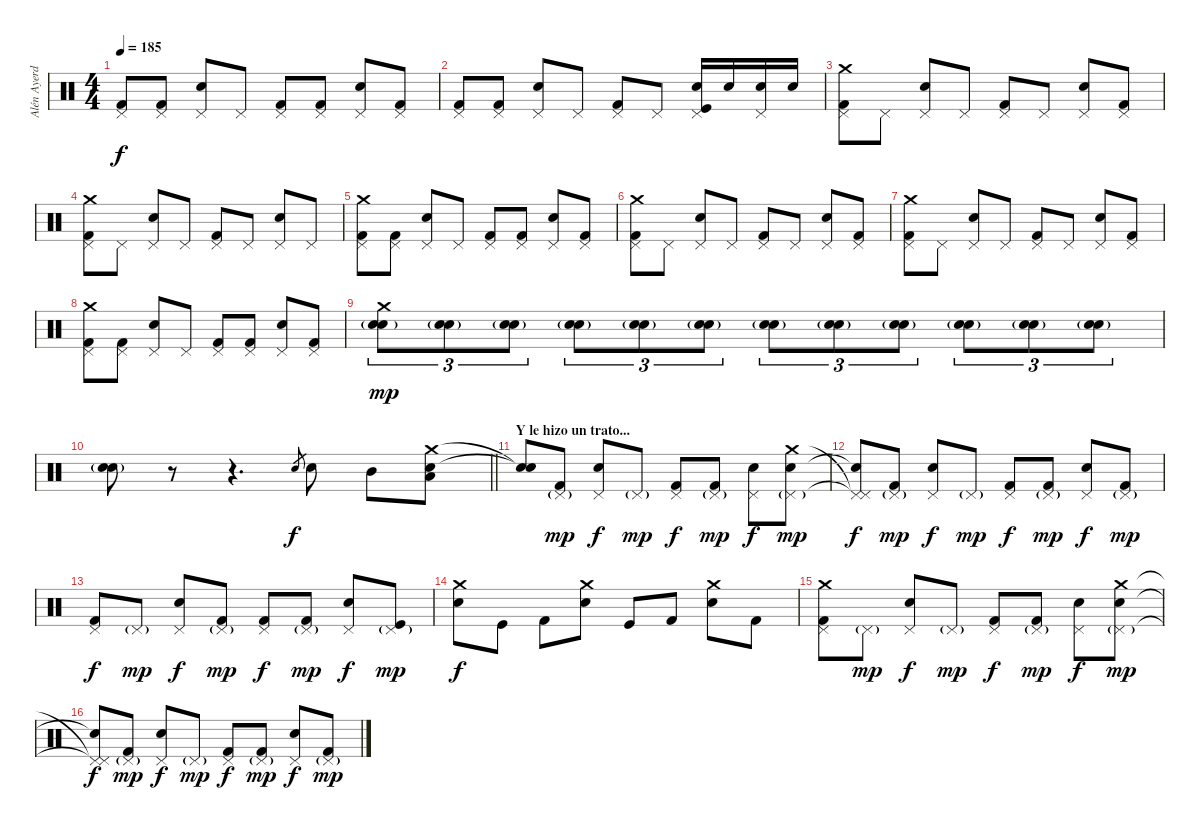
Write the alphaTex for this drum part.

\track ("Alén Ayerdi - Batería" "Alén Ayerd") {instrument percussion}
\staff {score}
\articulation defaults
\ts (4 4)
\tempo 185
\clef neutral
\ks c
("Pedal Hi-Hat (hit)" "Kick (hit) 2").8{dy f} ("Pedal Hi-Hat (hit)" "Kick (hit) 2").8 ("Pedal Hi-Hat (hit)" "Electric Snare (hit)").8 "Pedal Hi-Hat (hit)".8 ("Pedal Hi-Hat (hit)" "Kick (hit) 2").8 ("Pedal Hi-Hat (hit)" "Kick (hit) 2").8 ("Pedal Hi-Hat (hit)" "Electric Snare (hit)").8 ("Pedal Hi-Hat (hit)" "Kick (hit) 2").8 |
("Pedal Hi-Hat (hit)" "Kick (hit) 2").8 ("Pedal Hi-Hat (hit)" "Kick (hit) 2").8 ("Pedal Hi-Hat (hit)" "Electric Snare (hit)").8 "Pedal Hi-Hat (hit)".8 ("Pedal Hi-Hat (hit)" "Kick (hit) 2").8 "Pedal Hi-Hat (hit)".8 ("Pedal Hi-Hat (hit)" "Electric Snare (hit)" "Kick (hit)").16 "Electric Snare (hit)".16 ("Pedal Hi-Hat (hit)" "Electric Snare (hit)").16 "Electric Snare (hit)".16 |
("Crash medium (hit)" "Pedal Hi-Hat (hit)" "Kick (hit) 2").8 "Pedal Hi-Hat (hit)".8 ("Pedal Hi-Hat (hit)" "Electric Snare (hit)").8 "Pedal Hi-Hat (hit)".8 ("Pedal Hi-Hat (hit)" "Kick (hit) 2").8 "Pedal Hi-Hat (hit)".8 ("Pedal Hi-Hat (hit)" "Electric Snare (hit)").8 ("Pedal Hi-Hat (hit)" "Kick (hit) 2").8 |
("Crash medium (hit)" "Pedal Hi-Hat (hit)" "Kick (hit) 2").8 "Pedal Hi-Hat (hit)".8 ("Pedal Hi-Hat (hit)" "Electric Snare (hit)").8 "Pedal Hi-Hat (hit)".8 ("Pedal Hi-Hat (hit)" "Kick (hit) 2").8 "Pedal Hi-Hat (hit)".8 ("Pedal Hi-Hat (hit)" "Electric Snare (hit)").8 "Pedal Hi-Hat (hit)".8 |
("Crash medium (hit)" "Pedal Hi-Hat (hit)" "Kick (hit) 2").8 ("Pedal Hi-Hat (hit)" "Kick (hit) 2").8 ("Pedal Hi-Hat (hit)" "Electric Snare (hit)").8 "Pedal Hi-Hat (hit)".8 ("Pedal Hi-Hat (hit)" "Kick (hit) 2").8 ("Pedal Hi-Hat (hit)" "Kick (hit) 2").8 ("Pedal Hi-Hat (hit)" "Electric Snare (hit)").8 ("Pedal Hi-Hat (hit)" "Kick (hit) 2").8 |
("Crash medium (hit)" "Pedal Hi-Hat (hit)" "Kick (hit) 2").8 "Pedal Hi-Hat (hit)".8 ("Pedal Hi-Hat (hit)" "Electric Snare (hit)").8 "Pedal Hi-Hat (hit)".8 ("Pedal Hi-Hat (hit)" "Kick (hit) 2").8 "Pedal Hi-Hat (hit)".8 ("Pedal Hi-Hat (hit)" "Electric Snare (hit)").8 ("Pedal Hi-Hat (hit)" "Kick (hit) 2").8 |
("Crash medium (hit)" "Pedal Hi-Hat (hit)" "Kick (hit) 2").8 "Pedal Hi-Hat (hit)".8 ("Pedal Hi-Hat (hit)" "Electric Snare (hit)").8 "Pedal Hi-Hat (hit)".8 ("Pedal Hi-Hat (hit)" "Kick (hit) 2").8 "Pedal Hi-Hat (hit)".8 ("Pedal Hi-Hat (hit)" "Electric Snare (hit)").8 ("Pedal Hi-Hat (hit)" "Kick (hit) 2").8 |
("Crash medium (hit)" "Pedal Hi-Hat (hit)" "Kick (hit) 2").8 ("Pedal Hi-Hat (hit)" "Kick (hit) 2").8 ("Pedal Hi-Hat (hit)" "Electric Snare (hit)").8 "Pedal Hi-Hat (hit)".8 ("Pedal Hi-Hat (hit)" "Kick (hit) 2").8 ("Pedal Hi-Hat (hit)" "Kick (hit) 2").8 ("Pedal Hi-Hat (hit)" "Electric Snare (hit)").8 ("Pedal Hi-Hat (hit)" "Kick (hit) 2").8 |
("Crash medium (hit)" "Snare (hit) 2"{g} "Electric Snare (hit)"{g}).8{tu (3 2) dy mp} ("Snare (hit) 2"{g} "Electric Snare (hit)"{g}).8{tu (3 2)} ("Snare (hit) 2"{g} "Electric Snare (hit)").8{tu (3 2)} ("Snare (hit) 2"{g} "Electric Snare (hit)").8{tu (3 2)} ("Snare (hit) 2"{g} "Electric Snare (hit)").8{tu (3 2)} ("Snare (hit) 2"{g} "Electric Snare (hit)").8{tu (3 2)} ("Snare (hit) 2"{g} "Electric Snare (hit)").8{tu (3 2)} ("Snare (hit) 2"{g} "Electric Snare (hit)").8{tu (3 2)} ("Snare (hit) 2"{g} "Electric Snare (hit)").8{tu (3 2)} ("Snare (hit) 2"{g} "Electric Snare (hit)").8{tu (3 2)} ("Snare (hit) 2"{g} "Electric Snare (hit)").8{tu (3 2)} ("Snare (hit) 2"{g} "Electric Snare (hit)").8{tu (3 2)} |
\barLineRight lightlight
("Snare (hit) 2"{g} "Electric Snare (hit)").8 r.8 r.4{d} "Snare (hit) 2".8{gr dy f} "Electric Snare (hit)".8 "Mid Tom (hit)".8 ("Crash medium (hit)" "Snare (hit) 2" "Low Tom (hit)").8 |
\section ("" "Y le hizo un trato...")
("Snare (hit)"{t} "Snare (hit)"{t}).8 ("Pedal Hi-Hat (hit)"{g} "Kick (hit) 2").8{dy mp} ("Pedal Hi-Hat (hit)" "Electric Snare (hit)").8{dy f} "Pedal Hi-Hat (hit)"{g}.8{dy mp} ("Pedal Hi-Hat (hit)" "Kick (hit) 2").8{dy f} ("Pedal Hi-Hat (hit)"{g} "Kick (hit) 2").8{dy mp} ("Pedal Hi-Hat (hit)" "Electric Snare (hit)").8{dy f} ("Crash medium (hit)" "Pedal Hi-Hat (hit)"{g} "Electric Snare (hit)").8{dy mp} |
("Pedal Hi-Hat (hit)"{t} "Pedal Hi-Hat (hit)"{t} "Snare (hit)"{t}).8{dy f} ("Pedal Hi-Hat (hit)"{g} "Kick (hit) 2").8{dy mp} ("Pedal Hi-Hat (hit)" "Electric Snare (hit)").8{dy f} "Pedal Hi-Hat (hit)"{g}.8{dy mp} ("Pedal Hi-Hat (hit)" "Kick (hit) 2").8{dy f} ("Pedal Hi-Hat (hit)"{g} "Kick (hit) 2").8{dy mp} ("Pedal Hi-Hat (hit)" "Electric Snare (hit)").8{dy f} ("Pedal Hi-Hat (hit)"{g} "Kick (hit) 2").8{dy mp} |
("Pedal Hi-Hat (hit)" "Kick (hit) 2").8{dy f} "Pedal Hi-Hat (hit)"{g}.8{dy mp} ("Pedal Hi-Hat (hit)" "Electric Snare (hit)").8{dy f} ("Pedal Hi-Hat (hit)"{g} "Kick (hit) 2").8{dy mp} ("Pedal Hi-Hat (hit)" "Kick (hit) 2").8{dy f} ("Pedal Hi-Hat (hit)"{g} "Kick (hit) 2").8{dy mp} ("Pedal Hi-Hat (hit)" "Electric Snare (hit)").8{dy f} ("Pedal Hi-Hat (hit)"{g} "Kick (hit)").8{dy mp} |
("Crash medium (hit)" "Electric Snare (hit)").8{dy f} "Kick (hit)".8 "Kick (hit) 2".8 ("Crash medium (hit)" "Electric Snare (hit)").8 "Kick (hit)".8 "Kick (hit) 2".8 ("Crash medium (hit)" "Electric Snare (hit)").8 "Kick (hit) 2".8 |
("Crash medium (hit)" "Pedal Hi-Hat (hit)" "Kick (hit) 2").8 "Pedal Hi-Hat (hit)"{g}.8{dy mp} ("Pedal Hi-Hat (hit)" "Electric Snare (hit)").8{dy f} "Pedal Hi-Hat (hit)"{g}.8{dy mp} ("Pedal Hi-Hat (hit)" "Kick (hit) 2").8{dy f} ("Pedal Hi-Hat (hit)"{g} "Kick (hit) 2").8{dy mp} ("Pedal Hi-Hat (hit)" "Electric Snare (hit)").8{dy f} ("Crash medium (hit)" "Pedal Hi-Hat (hit)"{g} "Electric Snare (hit)").8{dy mp} |
("Pedal Hi-Hat (hit)"{t} "Pedal Hi-Hat (hit)"{t} "Snare (hit)"{t}).8{dy f} ("Pedal Hi-Hat (hit)"{g} "Kick (hit) 2").8{dy mp} ("Pedal Hi-Hat (hit)" "Electric Snare (hit)").8{dy f} "Pedal Hi-Hat (hit)"{g}.8{dy mp} ("Pedal Hi-Hat (hit)" "Kick (hit) 2").8{dy f} ("Pedal Hi-Hat (hit)"{g} "Kick (hit) 2").8{dy mp} ("Pedal Hi-Hat (hit)" "Electric Snare (hit)").8{dy f} ("Pedal Hi-Hat (hit)"{g} "Kick (hit) 2").8{dy mp}
